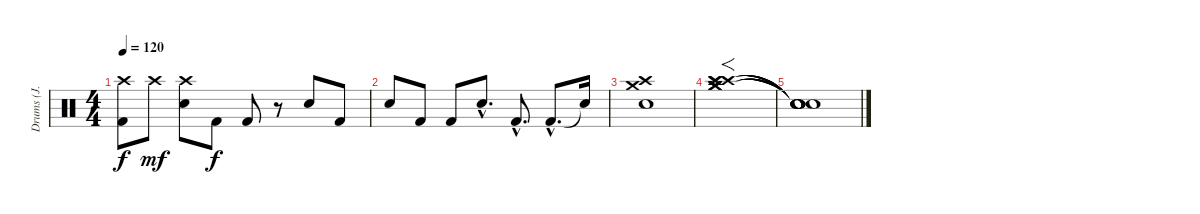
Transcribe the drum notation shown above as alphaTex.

\track ("Drums (J. Cramer)" "Drums (J. ") {instrument percussion}
\staff {score}
\articulation defaults
\ts (4 4)
\tempo 120
\clef neutral
\ks c
("Crash high (hit)" "Kick (hit) 2").8{dy f} "Crash high (hit)".8{dy mf} ("Crash high (hit)" "Electric Snare (hit)").8 "Kick (hit) 2".8{dy f} "Kick (hit) 2".8 r.8 "Electric Snare (hit)".8 "Kick (hit) 2".8 |
"Electric Snare (hit)".8 "Kick (hit) 2".8 "Kick (hit) 2".8 "Electric Snare (hit)"{hac}.8{d} "Kick (hit) 2"{hac}.8{d} "Kick (hit) 2"{hac}.8{d} "Snare (hit)"{t}.16 |
("Crash high (hit)" "Crash medium (hit)" "Electric Snare (hit)").1 |
("Crash high (hit)" "Crash high (hit)" "Crash high (hit)" "Crash medium (hit)" "Crash medium (hit)" "Crash medium (hit)").1{f} |
("Snare (hit)"{t} "Snare (hit)"{t} "Snare (hit)"{t} "Snare (hit)"{t} "Snare (hit)"{t} "Snare (hit)"{t}).1
